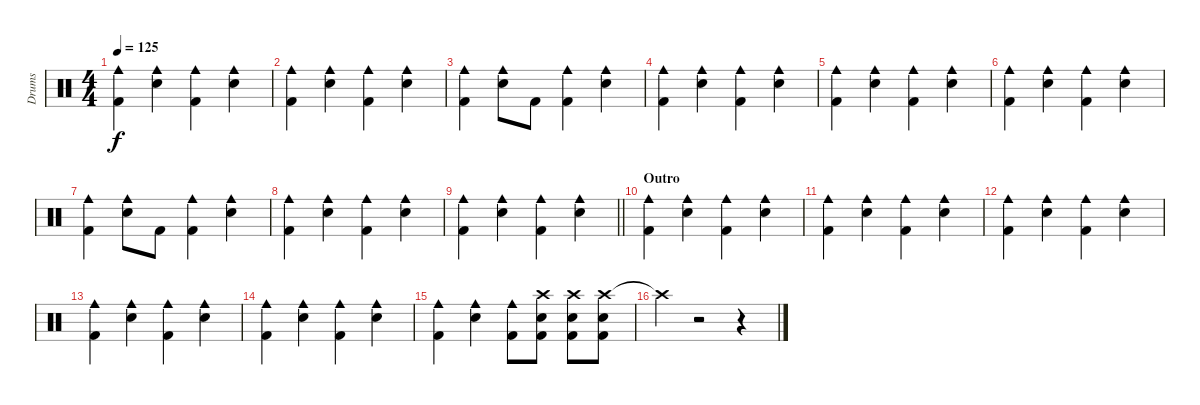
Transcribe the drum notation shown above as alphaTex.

\track ("Drums" "Drums") {instrument percussion}
\staff {score}
\articulation defaults
\ts (4 4)
\tempo 125
\clef neutral
\ks c
("Cowbell medium (hit)" "Kick (hit) 2").4{dy f} ("Cowbell medium (hit)" "Snare (hit) 2").4 ("Cowbell medium (hit)" "Kick (hit) 2").4 ("Cowbell medium (hit)" "Snare (hit) 2").4 |
("Cowbell medium (hit)" "Kick (hit) 2").4 ("Cowbell medium (hit)" "Snare (hit) 2").4 ("Cowbell medium (hit)" "Kick (hit) 2").4 ("Cowbell medium (hit)" "Snare (hit) 2").4 |
("Cowbell medium (hit)" "Kick (hit) 2").4 ("Cowbell medium (hit)" "Snare (hit) 2").8 "Kick (hit) 2".8 ("Cowbell medium (hit)" "Kick (hit) 2").4 ("Cowbell medium (hit)" "Snare (hit) 2").4 |
("Cowbell medium (hit)" "Kick (hit) 2").4 ("Cowbell medium (hit)" "Snare (hit) 2").4 ("Cowbell medium (hit)" "Kick (hit) 2").4 ("Cowbell medium (hit)" "Snare (hit) 2").4 |
("Cowbell medium (hit)" "Kick (hit) 2").4 ("Cowbell medium (hit)" "Snare (hit) 2").4 ("Cowbell medium (hit)" "Kick (hit) 2").4 ("Cowbell medium (hit)" "Snare (hit) 2").4 |
("Cowbell medium (hit)" "Kick (hit) 2").4 ("Cowbell medium (hit)" "Snare (hit) 2").4 ("Cowbell medium (hit)" "Kick (hit) 2").4 ("Cowbell medium (hit)" "Snare (hit) 2").4 |
("Cowbell medium (hit)" "Kick (hit) 2").4 ("Cowbell medium (hit)" "Snare (hit) 2").8 "Kick (hit) 2".8 ("Cowbell medium (hit)" "Kick (hit) 2").4 ("Cowbell medium (hit)" "Snare (hit) 2").4 |
("Cowbell medium (hit)" "Kick (hit) 2").4 ("Cowbell medium (hit)" "Snare (hit) 2").4 ("Cowbell medium (hit)" "Kick (hit) 2").4 ("Cowbell medium (hit)" "Snare (hit) 2").4 |
\barLineRight lightlight
("Cowbell medium (hit)" "Kick (hit) 2").4 ("Cowbell medium (hit)" "Snare (hit) 2").4 ("Cowbell medium (hit)" "Kick (hit) 2").4 ("Cowbell medium (hit)" "Snare (hit) 2").4 |
\section ("" "Outro")
("Cowbell medium (hit)" "Kick (hit) 2").4 ("Cowbell medium (hit)" "Snare (hit) 2").4 ("Cowbell medium (hit)" "Kick (hit) 2").4 ("Cowbell medium (hit)" "Snare (hit) 2").4 |
("Cowbell medium (hit)" "Kick (hit) 2").4 ("Cowbell medium (hit)" "Snare (hit) 2").4 ("Cowbell medium (hit)" "Kick (hit) 2").4 ("Cowbell medium (hit)" "Snare (hit) 2").4 |
("Cowbell medium (hit)" "Kick (hit) 2").4 ("Cowbell medium (hit)" "Snare (hit) 2").4 ("Cowbell medium (hit)" "Kick (hit) 2").4 ("Cowbell medium (hit)" "Snare (hit) 2").4 |
("Cowbell medium (hit)" "Kick (hit) 2").4 ("Cowbell medium (hit)" "Snare (hit) 2").4 ("Cowbell medium (hit)" "Kick (hit) 2").4 ("Cowbell medium (hit)" "Snare (hit) 2").4 |
("Cowbell medium (hit)" "Kick (hit) 2").4 ("Cowbell medium (hit)" "Snare (hit) 2").4 ("Cowbell medium (hit)" "Kick (hit) 2").4 ("Cowbell medium (hit)" "Snare (hit) 2").4 |
("Cowbell medium (hit)" "Kick (hit) 2").4 ("Cowbell medium (hit)" "Snare (hit) 2").4 ("Cowbell medium (hit)" "Kick (hit) 2").8 ("Crash high (hit)" "Snare (hit) 2" "Kick (hit) 2").8 ("Crash high (hit)" "Snare (hit) 2" "Kick (hit) 2").8 ("Crash high (hit)" "Snare (hit) 2" "Kick (hit) 2").8 |
"Crash high (hit)"{t}.4 r.2 r.4
